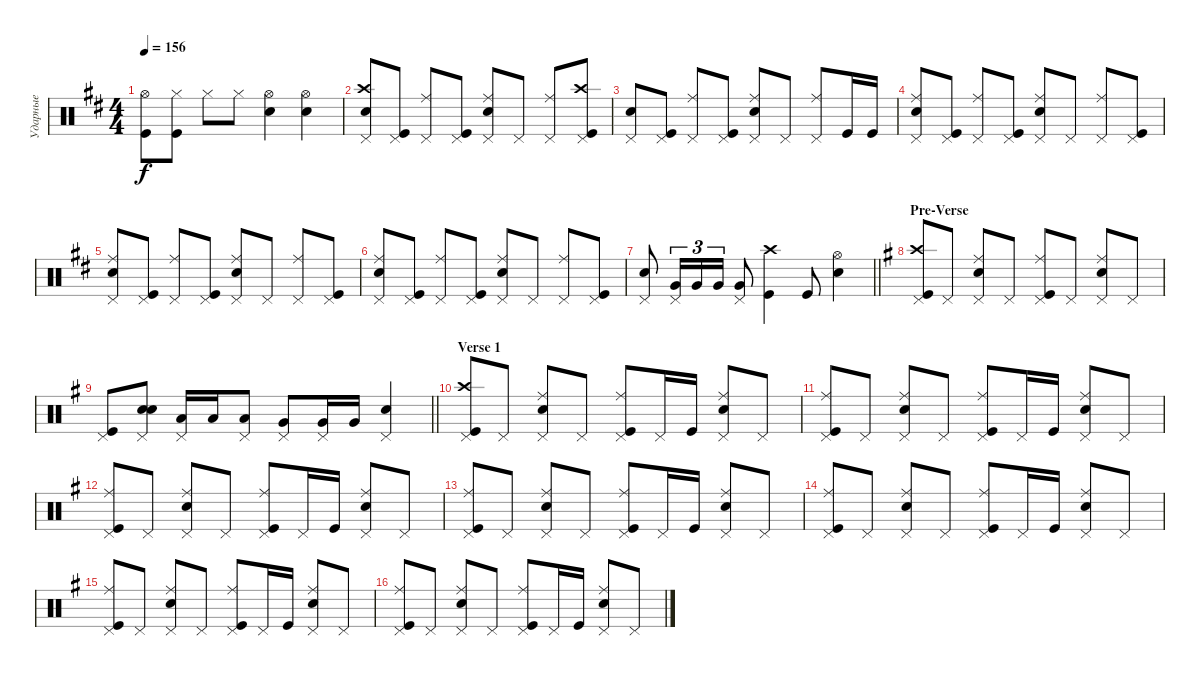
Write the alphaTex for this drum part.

\track ("Ударные" "Ударные") {instrument percussion}
\staff {score}
\articulation defaults
\ts (4 4)
\tempo 156
\clef neutral
\ks bminor
("Hi-Hat (open)" "Kick (hit)").8{dy f} ("Hi-Hat (closed)" "Kick (hit)").8 "Hi-Hat (closed)".8 "Hi-Hat (closed)".8 ("Hi-Hat (open)" "Snare (hit) 2").4 ("Hi-Hat (open)" "Snare (hit) 2").4 |
("Crash high (hit)" "Snare (hit) 2" "Pedal Hi-Hat (hit)").8 ("Kick (hit)" "Pedal Hi-Hat (hit)").8 ("Ride (middle)" "Pedal Hi-Hat (hit)").8 ("Kick (hit)" "Pedal Hi-Hat (hit)").8 ("Ride (middle)" "Snare (hit) 2" "Pedal Hi-Hat (hit)").8 "Pedal Hi-Hat (hit)".8 ("Pedal Hi-Hat (hit)" "Ride (middle)").8 ("Kick (hit)" "Crash high (hit)" "Pedal Hi-Hat (hit)").8 |
("Pedal Hi-Hat (hit)" "Snare (hit) 2").8 ("Kick (hit)" "Pedal Hi-Hat (hit)").8 ("Pedal Hi-Hat (hit)" "Ride (middle)").8 ("Kick (hit)" "Pedal Hi-Hat (hit)").8 ("Pedal Hi-Hat (hit)" "Snare (hit) 2" "Ride (middle)").8 "Pedal Hi-Hat (hit)".8 ("Pedal Hi-Hat (hit)" "Ride (middle)").8 "Kick (hit)".16 "Kick (hit)".16 |
("Pedal Hi-Hat (hit)" "Snare (hit) 2" "Ride (middle)").8 ("Pedal Hi-Hat (hit)" "Kick (hit)").8 ("Pedal Hi-Hat (hit)" "Ride (middle)").8 ("Pedal Hi-Hat (hit)" "Kick (hit)").8 ("Pedal Hi-Hat (hit)" "Snare (hit) 2" "Ride (middle)").8 "Pedal Hi-Hat (hit)".8 ("Pedal Hi-Hat (hit)" "Ride (middle)").8 ("Pedal Hi-Hat (hit)" "Kick (hit)").8 |
("Pedal Hi-Hat (hit)" "Snare (hit) 2" "Ride (middle)").8 ("Pedal Hi-Hat (hit)" "Kick (hit)").8 ("Pedal Hi-Hat (hit)" "Ride (middle)").8 ("Pedal Hi-Hat (hit)" "Kick (hit)").8 ("Pedal Hi-Hat (hit)" "Snare (hit) 2" "Ride (middle)").8 "Pedal Hi-Hat (hit)".8 ("Pedal Hi-Hat (hit)" "Ride (middle)").8 ("Pedal Hi-Hat (hit)" "Kick (hit)").8 |
("Pedal Hi-Hat (hit)" "Snare (hit) 2" "Ride (middle)").8 ("Pedal Hi-Hat (hit)" "Kick (hit)").8 ("Pedal Hi-Hat (hit)" "Ride (middle)").8 ("Pedal Hi-Hat (hit)" "Kick (hit)").8 ("Pedal Hi-Hat (hit)" "Snare (hit) 2" "Ride (middle)").8 "Pedal Hi-Hat (hit)".8 ("Pedal Hi-Hat (hit)" "Ride (middle)").8 ("Pedal Hi-Hat (hit)" "Kick (hit)").8 |
\barLineRight lightlight
("Snare (hit) 2" "Pedal Hi-Hat (hit)").8 ("Very Low Tom (hit)" "Pedal Hi-Hat (hit)").16{tu (3 2)} "Very Low Tom (hit)".16{tu (3 2)} "Very Low Tom (hit)".16{tu (3 2)} ("Very Low Tom (hit)" "Pedal Hi-Hat (hit)").8 ("Kick (hit)" "Crash high (hit)").4 "Kick (hit)".8 ("Snare (hit) 2" "Hi-Hat (open)").4 |
\section ("" "Pre-Verse")
\ks eminor
("Kick (hit)" "Pedal Hi-Hat (hit)" "Crash high (hit)").8 "Pedal Hi-Hat (hit)".8 ("Snare (hit) 2" "Ride (middle)" "Pedal Hi-Hat (hit)").8 "Pedal Hi-Hat (hit)".8 ("Ride (middle)" "Kick (hit)" "Pedal Hi-Hat (hit)").8 "Pedal Hi-Hat (hit)".8 ("Ride (middle)" "Snare (hit) 2" "Pedal Hi-Hat (hit)").8 "Pedal Hi-Hat (hit)".8 |
\barLineRight lightlight
("Kick (hit)" "Pedal Hi-Hat (hit)").8 ("Snare (hit) 2" "Snare (hit) 2" "Pedal Hi-Hat (hit)").8{bd 480} ("Low Tom (hit)" "Pedal Hi-Hat (hit)").16 "Low Tom (hit)".16 ("Low Tom (hit)" "Pedal Hi-Hat (hit)").8 ("Very Low Tom (hit)" "Pedal Hi-Hat (hit)").8 ("Very Low Tom (hit)" "Pedal Hi-Hat (hit)").16 "Very Low Tom (hit)".16 ("Snare (hit) 2" "Pedal Hi-Hat (hit)").4 |
\section ("" "Verse 1")
("Kick (hit)" "Crash high (hit)" "Pedal Hi-Hat (hit)").8 "Pedal Hi-Hat (hit)".8 ("Snare (hit) 2" "Ride (middle)" "Pedal Hi-Hat (hit)").8 "Pedal Hi-Hat (hit)".8 ("Kick (hit)" "Ride (middle)" "Pedal Hi-Hat (hit)").8 "Pedal Hi-Hat (hit)".16 "Kick (hit)".16 ("Snare (hit) 2" "Ride (middle)" "Pedal Hi-Hat (hit)").8 "Pedal Hi-Hat (hit)".8 |
("Kick (hit)" "Ride (middle)" "Pedal Hi-Hat (hit)").8 "Pedal Hi-Hat (hit)".8 ("Snare (hit) 2" "Ride (middle)" "Pedal Hi-Hat (hit)").8 "Pedal Hi-Hat (hit)".8 ("Kick (hit)" "Ride (middle)" "Pedal Hi-Hat (hit)").8 "Pedal Hi-Hat (hit)".16 "Kick (hit)".16 ("Snare (hit) 2" "Ride (middle)" "Pedal Hi-Hat (hit)").8 "Pedal Hi-Hat (hit)".8 |
("Kick (hit)" "Ride (middle)" "Pedal Hi-Hat (hit)").8 "Pedal Hi-Hat (hit)".8 ("Snare (hit) 2" "Ride (middle)" "Pedal Hi-Hat (hit)").8 "Pedal Hi-Hat (hit)".8 ("Kick (hit)" "Ride (middle)" "Pedal Hi-Hat (hit)").8 "Pedal Hi-Hat (hit)".16 "Kick (hit)".16 ("Snare (hit) 2" "Ride (middle)" "Pedal Hi-Hat (hit)").8 "Pedal Hi-Hat (hit)".8 |
("Kick (hit)" "Ride (middle)" "Pedal Hi-Hat (hit)").8 "Pedal Hi-Hat (hit)".8 ("Snare (hit) 2" "Ride (middle)" "Pedal Hi-Hat (hit)").8 "Pedal Hi-Hat (hit)".8 ("Kick (hit)" "Ride (middle)" "Pedal Hi-Hat (hit)").8 "Pedal Hi-Hat (hit)".16 "Kick (hit)".16 ("Snare (hit) 2" "Ride (middle)" "Pedal Hi-Hat (hit)").8 "Pedal Hi-Hat (hit)".8 |
("Kick (hit)" "Ride (middle)" "Pedal Hi-Hat (hit)").8 "Pedal Hi-Hat (hit)".8 ("Snare (hit) 2" "Ride (middle)" "Pedal Hi-Hat (hit)").8 "Pedal Hi-Hat (hit)".8 ("Kick (hit)" "Ride (middle)" "Pedal Hi-Hat (hit)").8 "Pedal Hi-Hat (hit)".16 "Kick (hit)".16 ("Snare (hit) 2" "Ride (middle)" "Pedal Hi-Hat (hit)").8 "Pedal Hi-Hat (hit)".8 |
("Kick (hit)" "Ride (middle)" "Pedal Hi-Hat (hit)").8 "Pedal Hi-Hat (hit)".8 ("Snare (hit) 2" "Ride (middle)" "Pedal Hi-Hat (hit)").8 "Pedal Hi-Hat (hit)".8 ("Kick (hit)" "Ride (middle)" "Pedal Hi-Hat (hit)").8 "Pedal Hi-Hat (hit)".16 "Kick (hit)".16 ("Snare (hit) 2" "Ride (middle)" "Pedal Hi-Hat (hit)").8 "Pedal Hi-Hat (hit)".8 |
("Kick (hit)" "Ride (middle)" "Pedal Hi-Hat (hit)").8 "Pedal Hi-Hat (hit)".8 ("Snare (hit) 2" "Ride (middle)" "Pedal Hi-Hat (hit)").8 "Pedal Hi-Hat (hit)".8 ("Kick (hit)" "Ride (middle)" "Pedal Hi-Hat (hit)").8 "Pedal Hi-Hat (hit)".16 "Kick (hit)".16 ("Snare (hit) 2" "Ride (middle)" "Pedal Hi-Hat (hit)").8 "Pedal Hi-Hat (hit)".8
